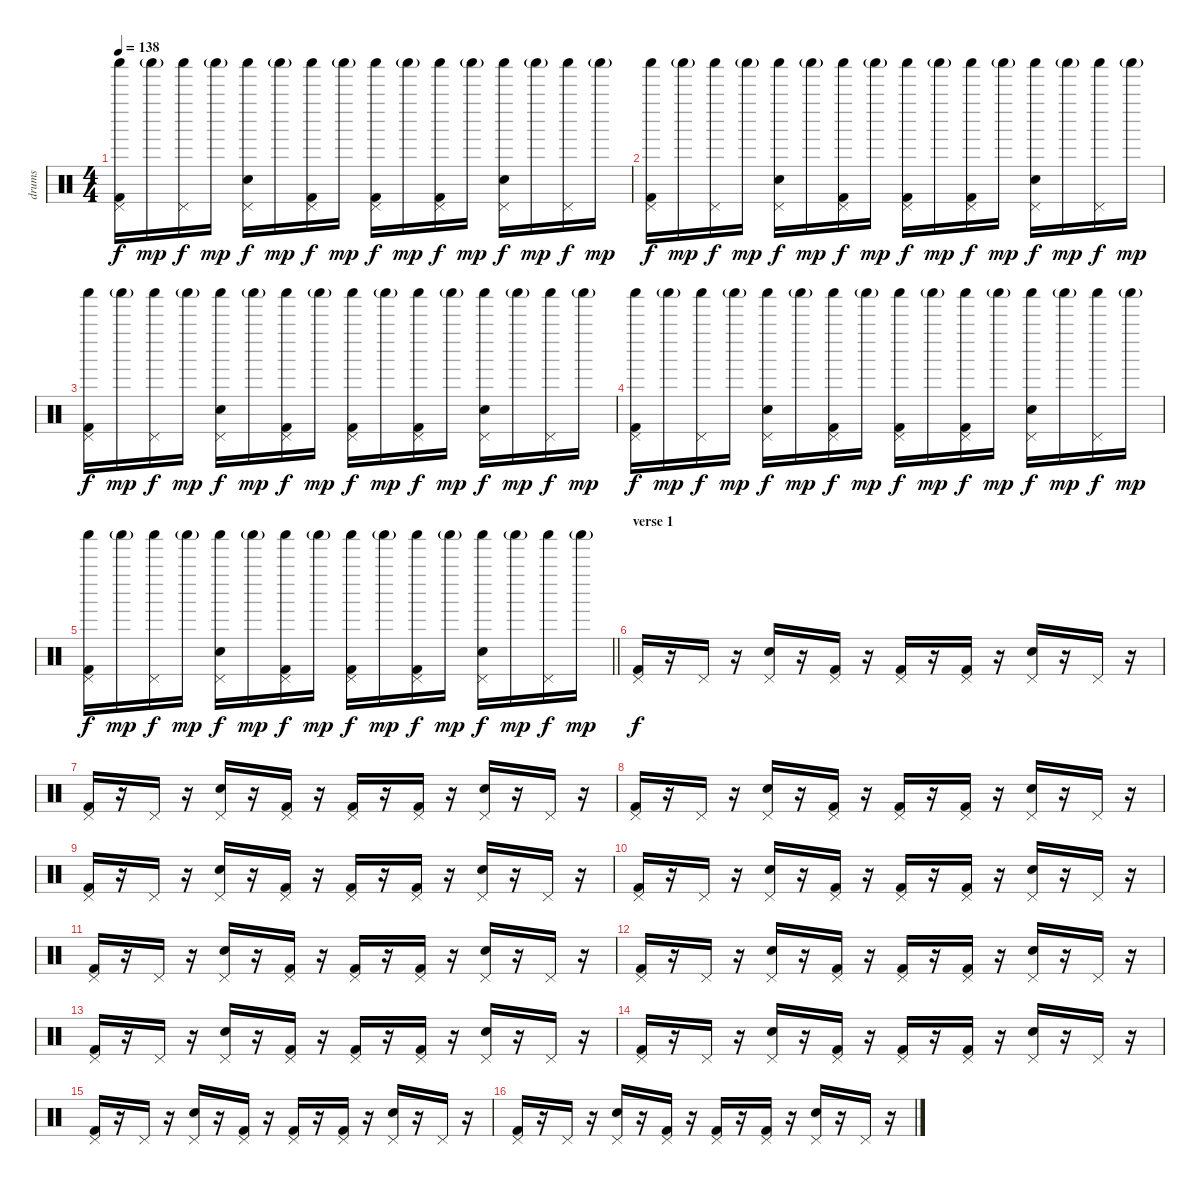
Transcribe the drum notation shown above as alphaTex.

\track ("drums" "drums") {instrument percussion}
\staff {score}
\articulation defaults
\ts (4 4)
\tempo 138
\clef neutral
\ks c
("Kick (hit) 2" "Pedal Hi-Hat (hit)" "Shaker (hit)").16{dy f} "Shaker (hit)"{g}.16{dy mp} ("Pedal Hi-Hat (hit)" "Shaker (hit)").16{dy f} "Shaker (hit)"{g}.16{dy mp} ("Electric Snare (hit)" "Pedal Hi-Hat (hit)" "Shaker (hit)").16{dy f} "Shaker (hit)"{g}.16{dy mp} ("Kick (hit) 2" "Pedal Hi-Hat (hit)" "Shaker (hit)").16{dy f} "Shaker (hit)"{g}.16{dy mp} ("Kick (hit) 2" "Pedal Hi-Hat (hit)" "Shaker (hit)").16{dy f} "Shaker (hit)"{g}.16{dy mp} ("Kick (hit) 2" "Pedal Hi-Hat (hit)" "Shaker (hit)").16{dy f} "Shaker (hit)"{g}.16{dy mp} ("Electric Snare (hit)" "Pedal Hi-Hat (hit)" "Shaker (hit)").16{dy f} "Shaker (hit)"{g}.16{dy mp} ("Pedal Hi-Hat (hit)" "Shaker (hit)").16{dy f} "Shaker (hit)"{g}.16{dy mp} |
("Kick (hit) 2" "Pedal Hi-Hat (hit)" "Shaker (hit)").16{dy f} "Shaker (hit)"{g}.16{dy mp} ("Pedal Hi-Hat (hit)" "Shaker (hit)").16{dy f} "Shaker (hit)"{g}.16{dy mp} ("Electric Snare (hit)" "Pedal Hi-Hat (hit)" "Shaker (hit)").16{dy f} "Shaker (hit)"{g}.16{dy mp} ("Kick (hit) 2" "Pedal Hi-Hat (hit)" "Shaker (hit)").16{dy f} "Shaker (hit)"{g}.16{dy mp} ("Kick (hit) 2" "Pedal Hi-Hat (hit)" "Shaker (hit)").16{dy f} "Shaker (hit)"{g}.16{dy mp} ("Kick (hit) 2" "Pedal Hi-Hat (hit)" "Shaker (hit)").16{dy f} "Shaker (hit)"{g}.16{dy mp} ("Electric Snare (hit)" "Pedal Hi-Hat (hit)" "Shaker (hit)").16{dy f} "Shaker (hit)"{g}.16{dy mp} ("Pedal Hi-Hat (hit)" "Shaker (hit)").16{dy f} "Shaker (hit)"{g}.16{dy mp} |
("Kick (hit) 2" "Pedal Hi-Hat (hit)" "Shaker (hit)").16{dy f} "Shaker (hit)"{g}.16{dy mp} ("Pedal Hi-Hat (hit)" "Shaker (hit)").16{dy f} "Shaker (hit)"{g}.16{dy mp} ("Electric Snare (hit)" "Pedal Hi-Hat (hit)" "Shaker (hit)").16{dy f} "Shaker (hit)"{g}.16{dy mp} ("Kick (hit) 2" "Pedal Hi-Hat (hit)" "Shaker (hit)").16{dy f} "Shaker (hit)"{g}.16{dy mp} ("Kick (hit) 2" "Pedal Hi-Hat (hit)" "Shaker (hit)").16{dy f} "Shaker (hit)"{g}.16{dy mp} ("Kick (hit) 2" "Pedal Hi-Hat (hit)" "Shaker (hit)").16{dy f} "Shaker (hit)"{g}.16{dy mp} ("Electric Snare (hit)" "Pedal Hi-Hat (hit)" "Shaker (hit)").16{dy f} "Shaker (hit)"{g}.16{dy mp} ("Pedal Hi-Hat (hit)" "Shaker (hit)").16{dy f} "Shaker (hit)"{g}.16{dy mp} |
("Kick (hit) 2" "Pedal Hi-Hat (hit)" "Shaker (hit)").16{dy f} "Shaker (hit)"{g}.16{dy mp} ("Pedal Hi-Hat (hit)" "Shaker (hit)").16{dy f} "Shaker (hit)"{g}.16{dy mp} ("Electric Snare (hit)" "Pedal Hi-Hat (hit)" "Shaker (hit)").16{dy f} "Shaker (hit)"{g}.16{dy mp} ("Kick (hit) 2" "Pedal Hi-Hat (hit)" "Shaker (hit)").16{dy f} "Shaker (hit)"{g}.16{dy mp} ("Kick (hit) 2" "Pedal Hi-Hat (hit)" "Shaker (hit)").16{dy f} "Shaker (hit)"{g}.16{dy mp} ("Kick (hit) 2" "Pedal Hi-Hat (hit)" "Shaker (hit)").16{dy f} "Shaker (hit)"{g}.16{dy mp} ("Electric Snare (hit)" "Pedal Hi-Hat (hit)" "Shaker (hit)").16{dy f} "Shaker (hit)"{g}.16{dy mp} ("Pedal Hi-Hat (hit)" "Shaker (hit)").16{dy f} "Shaker (hit)"{g}.16{dy mp} |
\barLineRight lightlight
("Kick (hit) 2" "Pedal Hi-Hat (hit)" "Shaker (hit)").16{dy f} "Shaker (hit)"{g}.16{dy mp} ("Pedal Hi-Hat (hit)" "Shaker (hit)").16{dy f} "Shaker (hit)"{g}.16{dy mp} ("Electric Snare (hit)" "Pedal Hi-Hat (hit)" "Shaker (hit)").16{dy f} "Shaker (hit)"{g}.16{dy mp} ("Kick (hit) 2" "Pedal Hi-Hat (hit)" "Shaker (hit)").16{dy f} "Shaker (hit)"{g}.16{dy mp} ("Kick (hit) 2" "Pedal Hi-Hat (hit)" "Shaker (hit)").16{dy f} "Shaker (hit)"{g}.16{dy mp} ("Kick (hit) 2" "Pedal Hi-Hat (hit)" "Shaker (hit)").16{dy f} "Shaker (hit)"{g}.16{dy mp} ("Electric Snare (hit)" "Pedal Hi-Hat (hit)" "Shaker (hit)").16{dy f} "Shaker (hit)"{g}.16{dy mp} ("Pedal Hi-Hat (hit)" "Shaker (hit)").16{dy f} "Shaker (hit)"{g}.16{dy mp} |
\section ("" "verse 1")
("Kick (hit) 2" "Pedal Hi-Hat (hit)").16{dy f} r.16 "Pedal Hi-Hat (hit)".16 r.16 ("Electric Snare (hit)" "Pedal Hi-Hat (hit)").16 r.16 ("Kick (hit) 2" "Pedal Hi-Hat (hit)").16 r.16 ("Kick (hit) 2" "Pedal Hi-Hat (hit)").16 r.16 ("Kick (hit) 2" "Pedal Hi-Hat (hit)").16 r.16 ("Electric Snare (hit)" "Pedal Hi-Hat (hit)").16 r.16 "Pedal Hi-Hat (hit)".16 r.16 |
("Kick (hit) 2" "Pedal Hi-Hat (hit)").16 r.16 "Pedal Hi-Hat (hit)".16 r.16 ("Electric Snare (hit)" "Pedal Hi-Hat (hit)").16 r.16 ("Kick (hit) 2" "Pedal Hi-Hat (hit)").16 r.16 ("Kick (hit) 2" "Pedal Hi-Hat (hit)").16 r.16 ("Kick (hit) 2" "Pedal Hi-Hat (hit)").16 r.16 ("Electric Snare (hit)" "Pedal Hi-Hat (hit)").16 r.16 "Pedal Hi-Hat (hit)".16 r.16 |
("Kick (hit) 2" "Pedal Hi-Hat (hit)").16 r.16 "Pedal Hi-Hat (hit)".16 r.16 ("Electric Snare (hit)" "Pedal Hi-Hat (hit)").16 r.16 ("Kick (hit) 2" "Pedal Hi-Hat (hit)").16 r.16 ("Kick (hit) 2" "Pedal Hi-Hat (hit)").16 r.16 ("Kick (hit) 2" "Pedal Hi-Hat (hit)").16 r.16 ("Electric Snare (hit)" "Pedal Hi-Hat (hit)").16 r.16 "Pedal Hi-Hat (hit)".16 r.16 |
("Kick (hit) 2" "Pedal Hi-Hat (hit)").16 r.16 "Pedal Hi-Hat (hit)".16 r.16 ("Electric Snare (hit)" "Pedal Hi-Hat (hit)").16 r.16 ("Kick (hit) 2" "Pedal Hi-Hat (hit)").16 r.16 ("Kick (hit) 2" "Pedal Hi-Hat (hit)").16 r.16 ("Kick (hit) 2" "Pedal Hi-Hat (hit)").16 r.16 ("Electric Snare (hit)" "Pedal Hi-Hat (hit)").16 r.16 "Pedal Hi-Hat (hit)".16 r.16 |
("Kick (hit) 2" "Pedal Hi-Hat (hit)").16 r.16 "Pedal Hi-Hat (hit)".16 r.16 ("Electric Snare (hit)" "Pedal Hi-Hat (hit)").16 r.16 ("Kick (hit) 2" "Pedal Hi-Hat (hit)").16 r.16 ("Kick (hit) 2" "Pedal Hi-Hat (hit)").16 r.16 ("Kick (hit) 2" "Pedal Hi-Hat (hit)").16 r.16 ("Electric Snare (hit)" "Pedal Hi-Hat (hit)").16 r.16 "Pedal Hi-Hat (hit)".16 r.16 |
("Kick (hit) 2" "Pedal Hi-Hat (hit)").16 r.16 "Pedal Hi-Hat (hit)".16 r.16 ("Electric Snare (hit)" "Pedal Hi-Hat (hit)").16 r.16 ("Kick (hit) 2" "Pedal Hi-Hat (hit)").16 r.16 ("Kick (hit) 2" "Pedal Hi-Hat (hit)").16 r.16 ("Kick (hit) 2" "Pedal Hi-Hat (hit)").16 r.16 ("Electric Snare (hit)" "Pedal Hi-Hat (hit)").16 r.16 "Pedal Hi-Hat (hit)".16 r.16 |
("Kick (hit) 2" "Pedal Hi-Hat (hit)").16 r.16 "Pedal Hi-Hat (hit)".16 r.16 ("Electric Snare (hit)" "Pedal Hi-Hat (hit)").16 r.16 ("Kick (hit) 2" "Pedal Hi-Hat (hit)").16 r.16 ("Kick (hit) 2" "Pedal Hi-Hat (hit)").16 r.16 ("Kick (hit) 2" "Pedal Hi-Hat (hit)").16 r.16 ("Electric Snare (hit)" "Pedal Hi-Hat (hit)").16 r.16 "Pedal Hi-Hat (hit)".16 r.16 |
("Kick (hit) 2" "Pedal Hi-Hat (hit)").16 r.16 "Pedal Hi-Hat (hit)".16 r.16 ("Electric Snare (hit)" "Pedal Hi-Hat (hit)").16 r.16 ("Kick (hit) 2" "Pedal Hi-Hat (hit)").16 r.16 ("Kick (hit) 2" "Pedal Hi-Hat (hit)").16 r.16 ("Kick (hit) 2" "Pedal Hi-Hat (hit)").16 r.16 ("Electric Snare (hit)" "Pedal Hi-Hat (hit)").16 r.16 "Pedal Hi-Hat (hit)".16 r.16 |
("Kick (hit) 2" "Pedal Hi-Hat (hit)").16 r.16 "Pedal Hi-Hat (hit)".16 r.16 ("Electric Snare (hit)" "Pedal Hi-Hat (hit)").16 r.16 ("Kick (hit) 2" "Pedal Hi-Hat (hit)").16 r.16 ("Kick (hit) 2" "Pedal Hi-Hat (hit)").16 r.16 ("Kick (hit) 2" "Pedal Hi-Hat (hit)").16 r.16 ("Electric Snare (hit)" "Pedal Hi-Hat (hit)").16 r.16 "Pedal Hi-Hat (hit)".16 r.16 |
("Kick (hit) 2" "Pedal Hi-Hat (hit)").16 r.16 "Pedal Hi-Hat (hit)".16 r.16 ("Electric Snare (hit)" "Pedal Hi-Hat (hit)").16 r.16 ("Kick (hit) 2" "Pedal Hi-Hat (hit)").16 r.16 ("Kick (hit) 2" "Pedal Hi-Hat (hit)").16 r.16 ("Kick (hit) 2" "Pedal Hi-Hat (hit)").16 r.16 ("Electric Snare (hit)" "Pedal Hi-Hat (hit)").16 r.16 "Pedal Hi-Hat (hit)".16 r.16 |
("Kick (hit) 2" "Pedal Hi-Hat (hit)").16 r.16 "Pedal Hi-Hat (hit)".16 r.16 ("Electric Snare (hit)" "Pedal Hi-Hat (hit)").16 r.16 ("Kick (hit) 2" "Pedal Hi-Hat (hit)").16 r.16 ("Kick (hit) 2" "Pedal Hi-Hat (hit)").16 r.16 ("Kick (hit) 2" "Pedal Hi-Hat (hit)").16 r.16 ("Electric Snare (hit)" "Pedal Hi-Hat (hit)").16 r.16 "Pedal Hi-Hat (hit)".16 r.16
